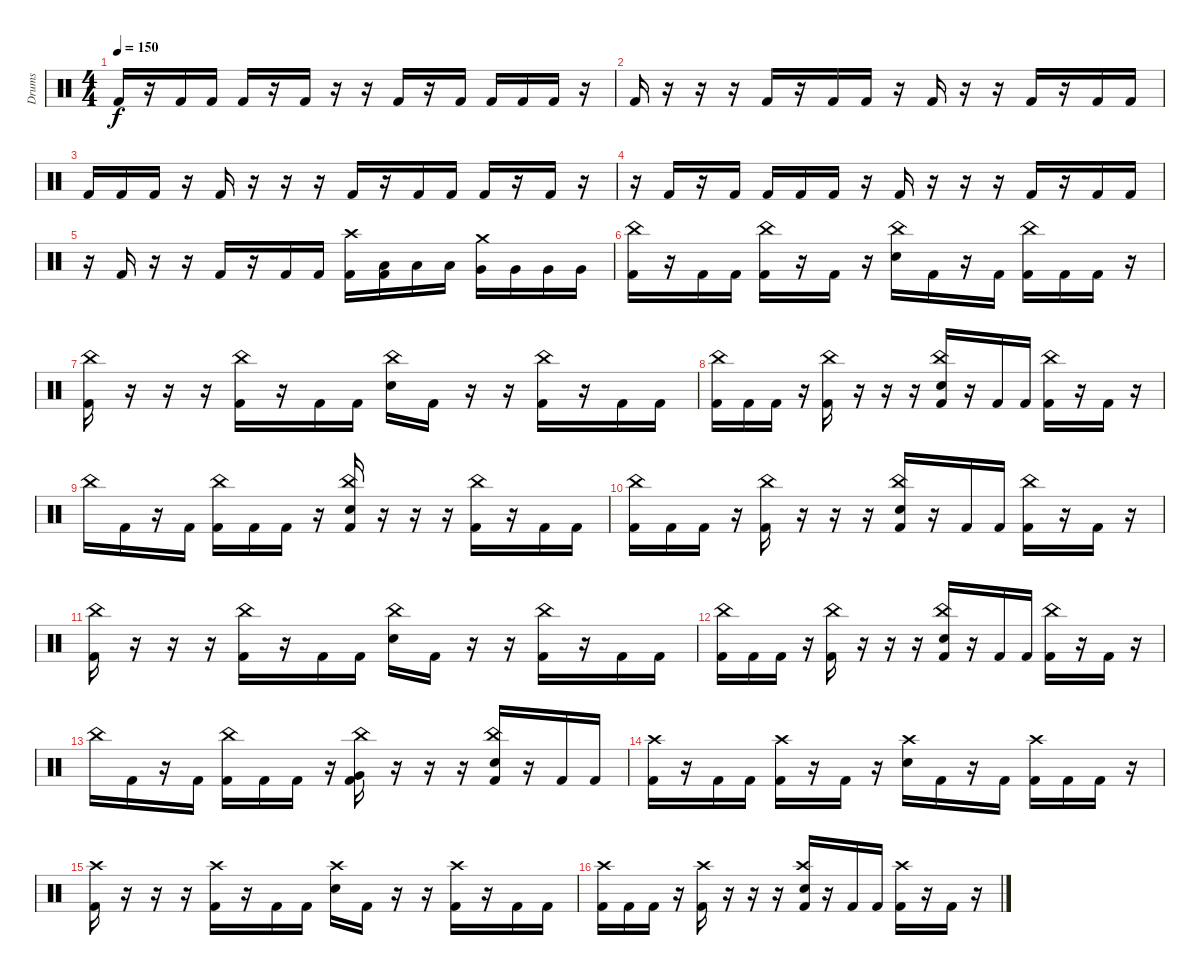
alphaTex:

\track ("Drums" "Drums") {instrument percussion}
\staff {score}
\articulation defaults
\ts (4 4)
\tempo 150
\clef neutral
\ks c "Kick (hit) 2".16{dy f}
r.16 "Kick (hit) 2".16 "Kick (hit) 2".16 "Kick (hit) 2".16 r.16 "Kick (hit) 2".16 r.16 r.16 "Kick (hit) 2".16 r.16 "Kick (hit) 2".16 "Kick (hit) 2".16 "Kick (hit) 2".16 "Kick (hit) 2".16 r.16 |
"Kick (hit) 2".16 r.16 r.16 r.16 "Kick (hit) 2".16 r.16 "Kick (hit) 2".16 "Kick (hit) 2".16 r.16 "Kick (hit) 2".16 r.16 r.16 "Kick (hit) 2".16 r.16 "Kick (hit) 2".16 "Kick (hit) 2".16 |
"Kick (hit) 2".16 "Kick (hit) 2".16 "Kick (hit) 2".16 r.16 "Kick (hit) 2".16 r.16 r.16 r.16 "Kick (hit) 2".16 r.16 "Kick (hit) 2".16 "Kick (hit) 2".16 "Kick (hit) 2".16 r.16 "Kick (hit) 2".16 r.16 |
r.16 "Kick (hit) 2".16 r.16 "Kick (hit) 2".16 "Kick (hit) 2".16 "Kick (hit) 2".16 "Kick (hit) 2".16 r.16 "Kick (hit) 2".16 r.16 r.16 r.16 "Kick (hit) 2".16 r.16 "Kick (hit) 2".16 "Kick (hit) 2".16 |
r.16 "Kick (hit) 2".16 r.16 r.16 "Kick (hit) 2".16 r.16 "Kick (hit) 2".16 "Kick (hit) 2".16 ("Crash high (hit)" "Kick (hit) 2").16 ("Low Tom (hit)" "Kick (hit) 2").16 "Low Tom (hit)".16 "Low Tom (hit)".16 ("Crash medium (hit)" "Very Low Tom (hit)").16 "Very Low Tom (hit)".16 "Very Low Tom (hit)".16 "Very Low Tom (hit)".16 |
("China (hit)" "Kick (hit) 2").16 r.16 "Kick (hit) 2".16 "Kick (hit) 2".16 ("China (hit)" "Kick (hit) 2").16 r.16 "Kick (hit) 2".16 r.16 ("China (hit)" "Snare (hit) 2").16 "Kick (hit) 2".16 r.16 "Kick (hit) 2".16 ("China (hit)" "Kick (hit) 2").16 "Kick (hit) 2".16 "Kick (hit) 2".16 r.16 |
("China (hit)" "Kick (hit) 2").16 r.16 r.16 r.16 ("China (hit)" "Kick (hit) 2").16 r.16 "Kick (hit) 2".16 "Kick (hit) 2".16 ("China (hit)" "Snare (hit) 2").16 "Kick (hit) 2".16 r.16 r.16 ("China (hit)" "Kick (hit) 2").16 r.16 "Kick (hit) 2".16 "Kick (hit) 2".16 |
("China (hit)" "Kick (hit) 2").16 "Kick (hit) 2".16 "Kick (hit) 2".16 r.16 ("China (hit)" "Kick (hit) 2").16 r.16 r.16 r.16 ("China (hit)" "Snare (hit) 2" "Kick (hit) 2").16 r.16 "Kick (hit) 2".16 "Kick (hit) 2".16 ("China (hit)" "Kick (hit) 2").16 r.16 "Kick (hit) 2".16 r.16 |
"China (hit)".16 "Kick (hit) 2".16 r.16 "Kick (hit) 2".16 ("China (hit)" "Kick (hit) 2").16 "Kick (hit) 2".16 "Kick (hit) 2".16 r.16 ("China (hit)" "Snare (hit) 2" "Kick (hit) 2").16 r.16 r.16 r.16 ("China (hit)" "Kick (hit) 2").16 r.16 "Kick (hit) 2".16 "Kick (hit) 2".16 |
("China (hit)" "Kick (hit) 2").16 "Kick (hit) 2".16 "Kick (hit) 2".16 r.16 ("China (hit)" "Kick (hit) 2").16 r.16 r.16 r.16 ("China (hit)" "Snare (hit) 2" "Kick (hit) 2").16 r.16 "Kick (hit) 2".16 "Kick (hit) 2".16 ("China (hit)" "Kick (hit) 2").16 r.16 "Kick (hit) 2".16 r.16 |
("China (hit)" "Kick (hit) 2").16 r.16 r.16 r.16 ("China (hit)" "Kick (hit) 2").16 r.16 "Kick (hit) 2".16 "Kick (hit) 2".16 ("China (hit)" "Snare (hit) 2").16 "Kick (hit) 2".16 r.16 r.16 ("China (hit)" "Kick (hit) 2").16 r.16 "Kick (hit) 2".16 "Kick (hit) 2".16 |
("China (hit)" "Kick (hit) 2").16 "Kick (hit) 2".16 "Kick (hit) 2".16 r.16 ("China (hit)" "Kick (hit) 2").16 r.16 r.16 r.16 ("China (hit)" "Snare (hit) 2" "Kick (hit) 2").16 r.16 "Kick (hit) 2".16 "Kick (hit) 2".16 ("China (hit)" "Kick (hit) 2").16 r.16 "Kick (hit) 2".16 r.16 |
"China (hit)".16 "Kick (hit) 2".16 r.16 "Kick (hit) 2".16 ("China (hit)" "Kick (hit) 2").16 "Kick (hit) 2".16 "Kick (hit) 2".16 r.16 ("China (hit)" "Very Low Tom (hit)" "Kick (hit) 2").16 r.16 r.16 r.16 ("China (hit)" "Snare (hit) 2" "Kick (hit) 2").16 r.16 "Kick (hit) 2".16 "Kick (hit) 2".16 |
("Crash high (hit)" "Kick (hit) 2").16 r.16 "Kick (hit) 2".16 "Kick (hit) 2".16 ("Crash high (hit)" "Kick (hit) 2").16 r.16 "Kick (hit) 2".16 r.16 ("Crash high (hit)" "Snare (hit) 2").16 "Kick (hit) 2".16 r.16 "Kick (hit) 2".16 ("Crash high (hit)" "Kick (hit) 2").16 "Kick (hit) 2".16 "Kick (hit) 2".16 r.16 |
("Crash high (hit)" "Kick (hit) 2").16 r.16 r.16 r.16 ("Crash high (hit)" "Kick (hit) 2").16 r.16 "Kick (hit) 2".16 "Kick (hit) 2".16 ("Crash high (hit)" "Snare (hit) 2").16 "Kick (hit) 2".16 r.16 r.16 ("Crash high (hit)" "Kick (hit) 2").16 r.16 "Kick (hit) 2".16 "Kick (hit) 2".16 |
("Crash high (hit)" "Kick (hit) 2").16 "Kick (hit) 2".16 "Kick (hit) 2".16 r.16 ("Crash high (hit)" "Kick (hit) 2").16 r.16 r.16 r.16 ("Crash high (hit)" "Snare (hit) 2" "Kick (hit) 2").16 r.16 "Kick (hit) 2".16 "Kick (hit) 2".16 ("Crash high (hit)" "Kick (hit) 2").16 r.16 "Kick (hit) 2".16 r.16
